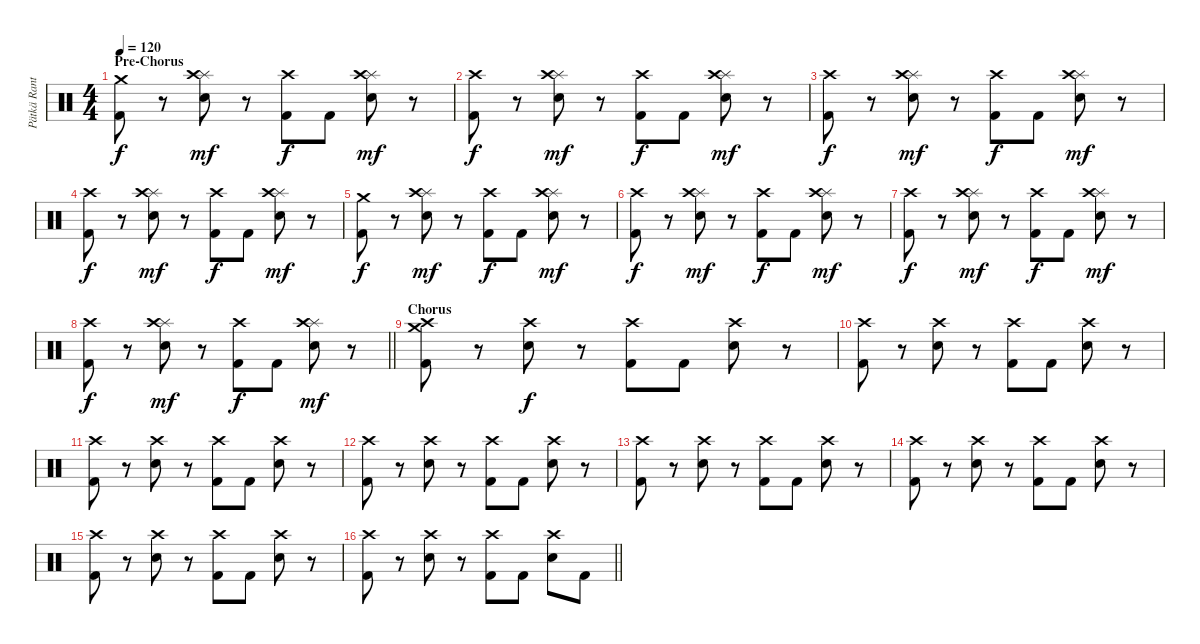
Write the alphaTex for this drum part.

\track ("Pätkä Rantala (Drums)" "Pätkä Rant") {instrument percussion}
\staff {score}
\articulation defaults
\ts (4 4)
\section ("" "Pre-Chorus")
\tempo 120
\clef neutral
\ks c
("Crash medium (hit)" "Kick (hit) 2").8{dy f} r.8 ("Splash (hit)" "Crash high (hit)" "Snare (hit) 2").8{dy mf} r.8 ("Crash high (hit)" "Kick (hit) 2").8{dy f} "Kick (hit) 2".8 ("Splash (hit)" "Crash high (hit)" "Snare (hit) 2").8{dy mf} r.8 |
("Crash high (hit)" "Kick (hit) 2").8{dy f} r.8 ("Splash (hit)" "Crash high (hit)" "Snare (hit) 2").8{dy mf} r.8 ("Crash high (hit)" "Kick (hit) 2").8{dy f} "Kick (hit) 2".8 ("Splash (hit)" "Crash high (hit)" "Snare (hit) 2").8{dy mf} r.8 |
("Crash high (hit)" "Kick (hit) 2").8{dy f} r.8 ("Splash (hit)" "Crash high (hit)" "Snare (hit) 2").8{dy mf} r.8 ("Crash high (hit)" "Kick (hit) 2").8{dy f} "Kick (hit) 2".8 ("Splash (hit)" "Crash high (hit)" "Snare (hit) 2").8{dy mf} r.8 |
("Crash high (hit)" "Kick (hit) 2").8{dy f} r.8 ("Splash (hit)" "Crash high (hit)" "Snare (hit) 2").8{dy mf} r.8 ("Crash high (hit)" "Kick (hit) 2").8{dy f} "Kick (hit) 2".8 ("Splash (hit)" "Crash high (hit)" "Snare (hit) 2").8{dy mf} r.8 |
("Crash medium (hit)" "Kick (hit) 2").8{dy f} r.8 ("Splash (hit)" "Crash high (hit)" "Snare (hit) 2").8{dy mf} r.8 ("Crash high (hit)" "Kick (hit) 2").8{dy f} "Kick (hit) 2".8 ("Splash (hit)" "Crash high (hit)" "Snare (hit) 2").8{dy mf} r.8 |
("Crash high (hit)" "Kick (hit) 2").8{dy f} r.8 ("Splash (hit)" "Crash high (hit)" "Snare (hit) 2").8{dy mf} r.8 ("Crash high (hit)" "Kick (hit) 2").8{dy f} "Kick (hit) 2".8 ("Splash (hit)" "Crash high (hit)" "Snare (hit) 2").8{dy mf} r.8 |
("Crash high (hit)" "Kick (hit) 2").8{dy f} r.8 ("Splash (hit)" "Crash high (hit)" "Snare (hit) 2").8{dy mf} r.8 ("Crash high (hit)" "Kick (hit) 2").8{dy f} "Kick (hit) 2".8 ("Splash (hit)" "Crash high (hit)" "Snare (hit) 2").8{dy mf} r.8 |
\barLineRight lightlight
("Crash high (hit)" "Kick (hit) 2").8{dy f} r.8 ("Splash (hit)" "Crash high (hit)" "Snare (hit) 2").8{dy mf} r.8 ("Crash high (hit)" "Kick (hit) 2").8{dy f} "Kick (hit) 2".8 ("Splash (hit)" "Crash high (hit)" "Snare (hit) 2").8{dy mf} r.8 |
\section ("" "Chorus")
("Crash medium (hit)" "Crash high (hit)" "Kick (hit) 2").8 r.8 ("Crash high (hit)" "Snare (hit) 2").8{dy f} r.8 ("Crash high (hit)" "Kick (hit) 2").8 "Kick (hit) 2".8 ("Crash high (hit)" "Snare (hit) 2").8 r.8 |
("Crash high (hit)" "Kick (hit) 2").8 r.8 ("Crash high (hit)" "Snare (hit) 2").8 r.8 ("Crash high (hit)" "Kick (hit) 2").8 "Kick (hit) 2".8 ("Crash high (hit)" "Snare (hit) 2").8 r.8 |
("Crash high (hit)" "Kick (hit) 2").8 r.8 ("Crash high (hit)" "Snare (hit) 2").8 r.8 ("Crash high (hit)" "Kick (hit) 2").8 "Kick (hit) 2".8 ("Crash high (hit)" "Snare (hit) 2").8 r.8 |
("Crash high (hit)" "Kick (hit) 2").8 r.8 ("Crash high (hit)" "Snare (hit) 2").8 r.8 ("Crash high (hit)" "Kick (hit) 2").8 "Kick (hit) 2".8 ("Crash high (hit)" "Snare (hit) 2").8 r.8 |
("Crash high (hit)" "Kick (hit) 2").8 r.8 ("Crash high (hit)" "Snare (hit) 2").8 r.8 ("Crash high (hit)" "Kick (hit) 2").8 "Kick (hit) 2".8 ("Crash high (hit)" "Snare (hit) 2").8 r.8 |
("Crash high (hit)" "Kick (hit) 2").8 r.8 ("Crash high (hit)" "Snare (hit) 2").8 r.8 ("Crash high (hit)" "Kick (hit) 2").8 "Kick (hit) 2".8 ("Crash high (hit)" "Snare (hit) 2").8 r.8 |
("Crash high (hit)" "Kick (hit) 2").8 r.8 ("Crash high (hit)" "Snare (hit) 2").8 r.8 ("Crash high (hit)" "Kick (hit) 2").8 "Kick (hit) 2".8 ("Crash high (hit)" "Snare (hit) 2").8 r.8 |
\barLineRight lightlight
("Crash high (hit)" "Kick (hit) 2").8 r.8 ("Crash high (hit)" "Snare (hit) 2").8 r.8 ("Crash high (hit)" "Kick (hit) 2").8 "Kick (hit) 2".8 ("Crash high (hit)" "Snare (hit) 2").8 "Kick (hit) 2".8
